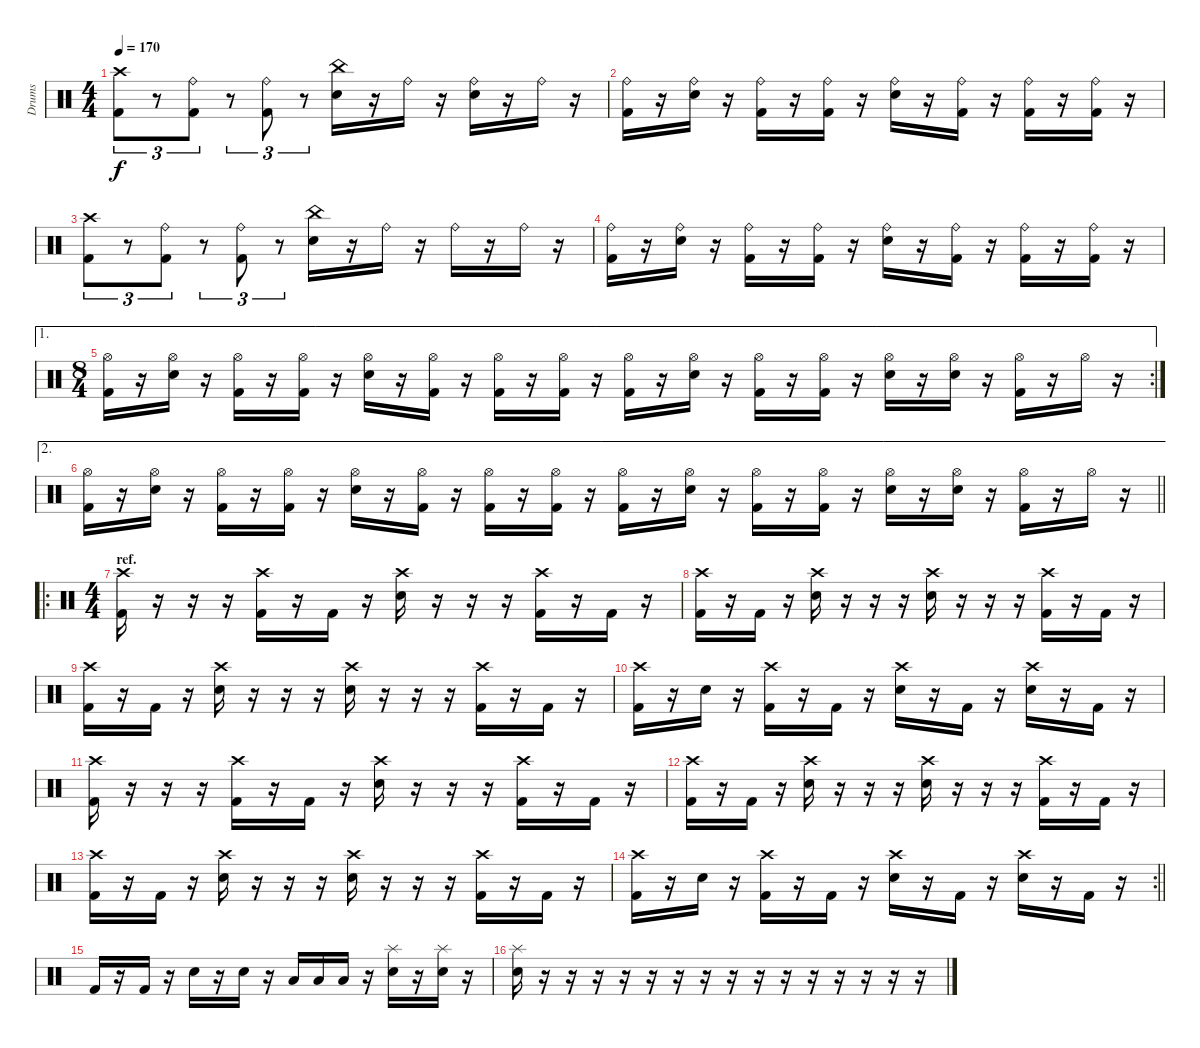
\track ("Drums" "Drums") {instrument percussion}
\staff {score}
\articulation defaults
\ts (4 4)
\tempo 170
\clef neutral
\ks c
("Crash high (hit)" "Kick (hit) 2").8{tu (3 2) dy f} r.8{tu (3 2)} ("Ride (bell)" "Kick (hit) 2").8{tu (3 2)} r.8{tu (3 2)} ("Ride (bell)" "Kick (hit) 2").8{tu (3 2)} r.8{tu (3 2)} ("China (hit)" "Electric Snare (hit)").16 r.16 "Ride (bell)".16 r.16 ("Ride (bell)" "Electric Snare (hit)").16 r.16 "Ride (bell)".16 r.16 |
("Ride (bell)" "Kick (hit) 2").16 r.16 ("Ride (bell)" "Electric Snare (hit)").16 r.16 ("Ride (bell)" "Kick (hit) 2").16 r.16 ("Ride (bell)" "Kick (hit) 2").16 r.16 ("Ride (bell)" "Electric Snare (hit)").16 r.16 ("Ride (bell)" "Kick (hit) 2").16 r.16 ("Ride (bell)" "Kick (hit) 2").16 r.16 ("Ride (bell)" "Kick (hit) 2").16 r.16 |
("Crash high (hit)" "Kick (hit) 2").8{tu (3 2)} r.8{tu (3 2)} ("Ride (bell)" "Kick (hit) 2").8{tu (3 2)} r.8{tu (3 2)} ("Ride (bell)" "Kick (hit) 2").8{tu (3 2)} r.8{tu (3 2)} ("China (hit)" "Electric Snare (hit)").16 r.16 "Ride (bell)".16 r.16 "Ride (bell)".16 r.16 "Ride (bell)".16 r.16 |
("Ride (bell)" "Kick (hit) 2").16 r.16 ("Ride (bell)" "Electric Snare (hit)").16 r.16 ("Ride (bell)" "Kick (hit) 2").16 r.16 ("Ride (bell)" "Kick (hit) 2").16 r.16 ("Ride (bell)" "Electric Snare (hit)").16 r.16 ("Ride (bell)" "Kick (hit) 2").16 r.16 ("Ride (bell)" "Kick (hit) 2").16 r.16 ("Ride (bell)" "Kick (hit) 2").16 r.16 |
\ae 1
\rc 2
\ts (8 4)
("Hi-Hat (open)" "Kick (hit) 2").16 r.16 ("Hi-Hat (open)" "Electric Snare (hit)").16 r.16 ("Hi-Hat (open)" "Kick (hit) 2").16 r.16 ("Hi-Hat (open)" "Kick (hit) 2").16 r.16 ("Hi-Hat (open)" "Electric Snare (hit)").16 r.16 ("Hi-Hat (open)" "Kick (hit) 2").16 r.16 ("Hi-Hat (open)" "Kick (hit) 2").16 r.16 ("Hi-Hat (open)" "Kick (hit) 2").16 r.16 ("Hi-Hat (open)" "Kick (hit) 2").16 r.16 ("Hi-Hat (open)" "Electric Snare (hit)").16 r.16 ("Hi-Hat (open)" "Kick (hit) 2").16 r.16 ("Hi-Hat (open)" "Kick (hit) 2").16 r.16 ("Hi-Hat (open)" "Electric Snare (hit)").16 r.16 ("Hi-Hat (open)" "Electric Snare (hit)").16 r.16 ("Hi-Hat (open)" "Kick (hit) 2").16 r.16 "Hi-Hat (open)".16 r.16 |
\ae 2
\barLineRight lightlight
("Hi-Hat (open)" "Kick (hit) 2").16 r.16 ("Hi-Hat (open)" "Electric Snare (hit)").16 r.16 ("Hi-Hat (open)" "Kick (hit) 2").16 r.16 ("Hi-Hat (open)" "Kick (hit) 2").16 r.16 ("Hi-Hat (open)" "Electric Snare (hit)").16 r.16 ("Hi-Hat (open)" "Kick (hit) 2").16 r.16 ("Hi-Hat (open)" "Kick (hit) 2").16 r.16 ("Hi-Hat (open)" "Kick (hit) 2").16 r.16 ("Hi-Hat (open)" "Kick (hit) 2").16 r.16 ("Hi-Hat (open)" "Electric Snare (hit)").16 r.16 ("Hi-Hat (open)" "Kick (hit) 2").16 r.16 ("Hi-Hat (open)" "Kick (hit) 2").16 r.16 ("Hi-Hat (open)" "Electric Snare (hit)").16 r.16 ("Hi-Hat (open)" "Electric Snare (hit)").16 r.16 ("Hi-Hat (open)" "Kick (hit) 2").16 r.16 "Hi-Hat (open)".16 r.16 |
\ro
\ts (4 4)
\section ("" "ref.")
("Crash high (hit)" "Kick (hit) 2").16 r.16 r.16 r.16 ("Crash high (hit)" "Kick (hit) 2").16 r.16 "Kick (hit) 2".16 r.16 ("Crash high (hit)" "Electric Snare (hit)").16 r.16 r.16 r.16 ("Crash high (hit)" "Kick (hit) 2").16 r.16 "Kick (hit) 2".16 r.16 |
("Crash high (hit)" "Kick (hit) 2").16 r.16 "Kick (hit) 2".16 r.16 ("Crash high (hit)" "Electric Snare (hit)").16 r.16 r.16 r.16 ("Crash high (hit)" "Electric Snare (hit)").16 r.16 r.16 r.16 ("Crash high (hit)" "Kick (hit) 2").16 r.16 "Kick (hit) 2".16 r.16 |
("Crash high (hit)" "Kick (hit) 2").16 r.16 "Kick (hit) 2".16 r.16 ("Crash high (hit)" "Electric Snare (hit)").16 r.16 r.16 r.16 ("Crash high (hit)" "Electric Snare (hit)").16 r.16 r.16 r.16 ("Crash high (hit)" "Kick (hit) 2").16 r.16 "Kick (hit) 2".16 r.16 |
("Crash high (hit)" "Kick (hit) 2").16 r.16 "Electric Snare (hit)".16 r.16 ("Crash high (hit)" "Kick (hit) 2").16 r.16 "Kick (hit) 2".16 r.16 ("Crash high (hit)" "Electric Snare (hit)").16 r.16 "Kick (hit) 2".16 r.16 ("Crash high (hit)" "Electric Snare (hit)").16 r.16 "Kick (hit) 2".16 r.16 |
("Crash high (hit)" "Kick (hit) 2").16 r.16 r.16 r.16 ("Crash high (hit)" "Kick (hit) 2").16 r.16 "Kick (hit) 2".16 r.16 ("Crash high (hit)" "Electric Snare (hit)").16 r.16 r.16 r.16 ("Crash high (hit)" "Kick (hit) 2").16 r.16 "Kick (hit) 2".16 r.16 |
("Crash high (hit)" "Kick (hit) 2").16 r.16 "Kick (hit) 2".16 r.16 ("Crash high (hit)" "Electric Snare (hit)").16 r.16 r.16 r.16 ("Crash high (hit)" "Electric Snare (hit)").16 r.16 r.16 r.16 ("Crash high (hit)" "Kick (hit) 2").16 r.16 "Kick (hit) 2".16 r.16 |
("Crash high (hit)" "Kick (hit) 2").16 r.16 "Kick (hit) 2".16 r.16 ("Crash high (hit)" "Electric Snare (hit)").16 r.16 r.16 r.16 ("Crash high (hit)" "Electric Snare (hit)").16 r.16 r.16 r.16 ("Crash high (hit)" "Kick (hit) 2").16 r.16 "Kick (hit) 2".16 r.16 |
\rc 2
\barLineRight lightlight
("Crash high (hit)" "Kick (hit) 2").16 r.16 "Electric Snare (hit)".16 r.16 ("Crash high (hit)" "Kick (hit) 2").16 r.16 "Kick (hit) 2".16 r.16 ("Crash high (hit)" "Electric Snare (hit)").16 r.16 "Kick (hit) 2".16 r.16 ("Crash high (hit)" "Electric Snare (hit)").16 r.16 "Kick (hit) 2".16 r.16 |
"Kick (hit) 2".16 r.16 "Kick (hit) 2".16 r.16 "Electric Snare (hit)".16 r.16 "Electric Snare (hit)".16 r.16 "Low Tom (hit)".16 "Low Tom (hit)".16 "Low Tom (hit)".16 r.16 ("Splash (hit)" "Electric Snare (hit)").16 r.16 ("Splash (hit)" "Electric Snare (hit)").16 r.16 |
("Splash (hit)" "Electric Snare (hit)").16 r.16 r.16 r.16 r.16 r.16 r.16 r.16 r.16 r.16 r.16 r.16 r.16 r.16 r.16 r.16
